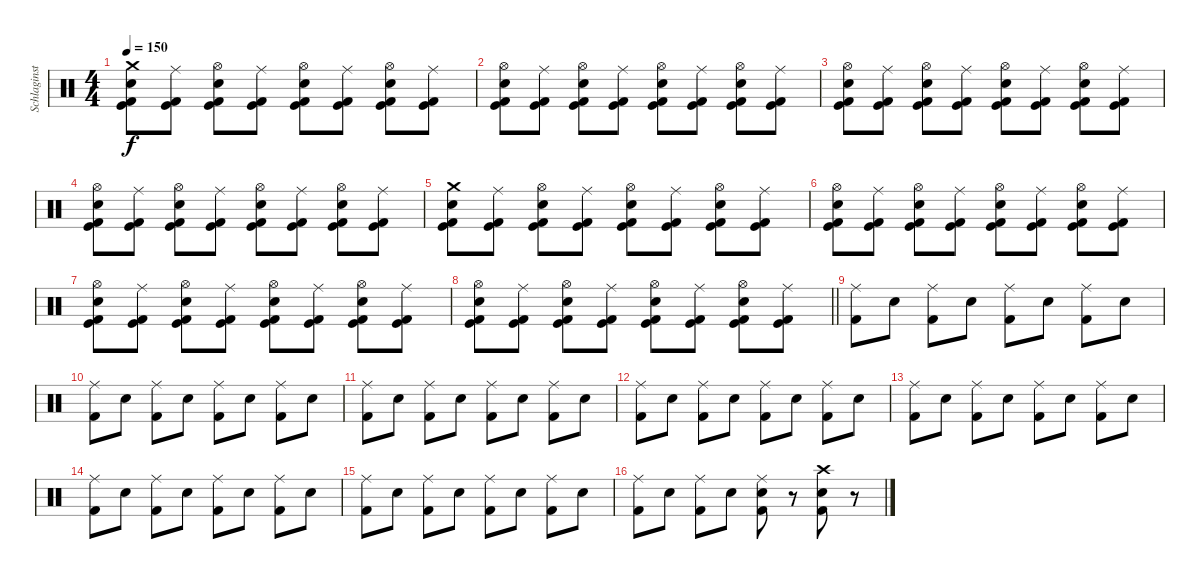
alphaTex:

\track ("Schlaginstrumente - Auswahl" "Schlaginst") {instrument percussion}
\staff {score}
\articulation defaults
\ts (4 4)
\tempo 150
\clef neutral
\ks c
("Crash medium (hit)" "Electric Snare (hit)" "Kick (hit)" "Kick (hit) 2").8{dy f} ("Ride (middle)" "Kick (hit)" "Kick (hit) 2").8 ("Hi-Hat (open)" "Electric Snare (hit)" "Kick (hit)" "Kick (hit) 2").8 ("Ride (middle)" "Kick (hit)" "Kick (hit) 2").8 ("Hi-Hat (open)" "Electric Snare (hit)" "Kick (hit)" "Kick (hit) 2").8 ("Ride (middle)" "Kick (hit)" "Kick (hit) 2").8 ("Hi-Hat (open)" "Electric Snare (hit)" "Kick (hit)" "Kick (hit) 2").8 ("Ride (middle)" "Kick (hit)" "Kick (hit) 2").8 |
("Hi-Hat (open)" "Electric Snare (hit)" "Kick (hit)" "Kick (hit) 2").8 ("Ride (middle)" "Kick (hit)" "Kick (hit) 2").8 ("Hi-Hat (open)" "Electric Snare (hit)" "Kick (hit)" "Kick (hit) 2").8 ("Ride (middle)" "Kick (hit)" "Kick (hit) 2").8 ("Hi-Hat (open)" "Electric Snare (hit)" "Kick (hit)" "Kick (hit) 2").8 ("Ride (middle)" "Kick (hit)" "Kick (hit) 2").8 ("Hi-Hat (open)" "Electric Snare (hit)" "Kick (hit)" "Kick (hit) 2").8 ("Ride (middle)" "Kick (hit)" "Kick (hit) 2").8 |
("Hi-Hat (open)" "Electric Snare (hit)" "Kick (hit)" "Kick (hit) 2").8 ("Ride (middle)" "Kick (hit)" "Kick (hit) 2").8 ("Hi-Hat (open)" "Electric Snare (hit)" "Kick (hit)" "Kick (hit) 2").8 ("Ride (middle)" "Kick (hit)" "Kick (hit) 2").8 ("Hi-Hat (open)" "Electric Snare (hit)" "Kick (hit)" "Kick (hit) 2").8 ("Ride (middle)" "Kick (hit)" "Kick (hit) 2").8 ("Hi-Hat (open)" "Electric Snare (hit)" "Kick (hit)" "Kick (hit) 2").8 ("Ride (middle)" "Kick (hit)" "Kick (hit) 2").8 |
("Hi-Hat (open)" "Electric Snare (hit)" "Kick (hit)" "Kick (hit) 2").8 ("Ride (middle)" "Kick (hit)" "Kick (hit) 2").8 ("Hi-Hat (open)" "Electric Snare (hit)" "Kick (hit)" "Kick (hit) 2").8 ("Ride (middle)" "Kick (hit)" "Kick (hit) 2").8 ("Hi-Hat (open)" "Electric Snare (hit)" "Kick (hit)" "Kick (hit) 2").8 ("Ride (middle)" "Kick (hit)" "Kick (hit) 2").8 ("Hi-Hat (open)" "Electric Snare (hit)" "Kick (hit)" "Kick (hit) 2").8 ("Ride (middle)" "Kick (hit)" "Kick (hit) 2").8 |
("Crash medium (hit)" "Electric Snare (hit)" "Kick (hit)" "Kick (hit) 2").8 ("Ride (middle)" "Kick (hit)" "Kick (hit) 2").8 ("Hi-Hat (open)" "Electric Snare (hit)" "Kick (hit)" "Kick (hit) 2").8 ("Ride (middle)" "Kick (hit)" "Kick (hit) 2").8 ("Hi-Hat (open)" "Electric Snare (hit)" "Kick (hit)" "Kick (hit) 2").8 ("Ride (middle)" "Kick (hit)" "Kick (hit) 2").8 ("Hi-Hat (open)" "Electric Snare (hit)" "Kick (hit)" "Kick (hit) 2").8 ("Ride (middle)" "Kick (hit)" "Kick (hit) 2").8 |
("Hi-Hat (open)" "Electric Snare (hit)" "Kick (hit)" "Kick (hit) 2").8 ("Ride (middle)" "Kick (hit)" "Kick (hit) 2").8 ("Hi-Hat (open)" "Electric Snare (hit)" "Kick (hit)" "Kick (hit) 2").8 ("Ride (middle)" "Kick (hit)" "Kick (hit) 2").8 ("Hi-Hat (open)" "Electric Snare (hit)" "Kick (hit)" "Kick (hit) 2").8 ("Ride (middle)" "Kick (hit)" "Kick (hit) 2").8 ("Hi-Hat (open)" "Electric Snare (hit)" "Kick (hit)" "Kick (hit) 2").8 ("Ride (middle)" "Kick (hit)" "Kick (hit) 2").8 |
("Hi-Hat (open)" "Electric Snare (hit)" "Kick (hit)" "Kick (hit) 2").8 ("Ride (middle)" "Kick (hit)" "Kick (hit) 2").8 ("Hi-Hat (open)" "Electric Snare (hit)" "Kick (hit)" "Kick (hit) 2").8 ("Ride (middle)" "Kick (hit)" "Kick (hit) 2").8 ("Hi-Hat (open)" "Electric Snare (hit)" "Kick (hit)" "Kick (hit) 2").8 ("Ride (middle)" "Kick (hit)" "Kick (hit) 2").8 ("Hi-Hat (open)" "Electric Snare (hit)" "Kick (hit)" "Kick (hit) 2").8 ("Ride (middle)" "Kick (hit)" "Kick (hit) 2").8 |
\barLineRight lightlight
("Hi-Hat (open)" "Electric Snare (hit)" "Kick (hit)" "Kick (hit) 2").8 ("Ride (middle)" "Kick (hit)" "Kick (hit) 2").8 ("Hi-Hat (open)" "Electric Snare (hit)" "Kick (hit)" "Kick (hit) 2").8 ("Ride (middle)" "Kick (hit)" "Kick (hit) 2").8 ("Hi-Hat (open)" "Electric Snare (hit)" "Kick (hit)" "Kick (hit) 2").8 ("Ride (middle)" "Kick (hit)" "Kick (hit) 2").8 ("Hi-Hat (open)" "Electric Snare (hit)" "Kick (hit)" "Kick (hit) 2").8 ("Ride (middle)" "Kick (hit)" "Kick (hit) 2").8 |
("Ride (middle)" "Kick (hit) 2").8 "Electric Snare (hit)".8 ("Ride (middle)" "Kick (hit) 2").8 "Electric Snare (hit)".8 ("Ride (middle)" "Kick (hit) 2").8 "Electric Snare (hit)".8 ("Ride (middle)" "Kick (hit) 2").8 "Electric Snare (hit)".8 |
("Ride (middle)" "Kick (hit) 2").8 "Electric Snare (hit)".8 ("Ride (middle)" "Kick (hit) 2").8 "Electric Snare (hit)".8 ("Ride (middle)" "Kick (hit) 2").8 "Electric Snare (hit)".8 ("Ride (middle)" "Kick (hit) 2").8 "Electric Snare (hit)".8 |
("Ride (middle)" "Kick (hit) 2").8 "Electric Snare (hit)".8 ("Ride (middle)" "Kick (hit) 2").8 "Electric Snare (hit)".8 ("Ride (middle)" "Kick (hit) 2").8 "Electric Snare (hit)".8 ("Ride (middle)" "Kick (hit) 2").8 "Electric Snare (hit)".8 |
("Ride (middle)" "Kick (hit) 2").8 "Electric Snare (hit)".8 ("Ride (middle)" "Kick (hit) 2").8 "Electric Snare (hit)".8 ("Ride (middle)" "Kick (hit) 2").8 "Electric Snare (hit)".8 ("Ride (middle)" "Kick (hit) 2").8 "Electric Snare (hit)".8 |
("Ride (middle)" "Kick (hit) 2").8 "Electric Snare (hit)".8 ("Ride (middle)" "Kick (hit) 2").8 "Electric Snare (hit)".8 ("Ride (middle)" "Kick (hit) 2").8 "Electric Snare (hit)".8 ("Ride (middle)" "Kick (hit) 2").8 "Electric Snare (hit)".8 |
("Ride (middle)" "Kick (hit) 2").8 "Electric Snare (hit)".8 ("Ride (middle)" "Kick (hit) 2").8 "Electric Snare (hit)".8 ("Ride (middle)" "Kick (hit) 2").8 "Electric Snare (hit)".8 ("Ride (middle)" "Kick (hit) 2").8 "Electric Snare (hit)".8 |
("Ride (middle)" "Kick (hit) 2").8 "Electric Snare (hit)".8 ("Ride (middle)" "Kick (hit) 2").8 "Electric Snare (hit)".8 ("Ride (middle)" "Kick (hit) 2").8 "Electric Snare (hit)".8 ("Ride (middle)" "Kick (hit) 2").8 "Electric Snare (hit)".8 |
("Ride (middle)" "Kick (hit) 2").8 "Electric Snare (hit)".8 ("Ride (middle)" "Kick (hit) 2").8 "Electric Snare (hit)".8 ("Ride (middle)" "Electric Snare (hit)" "Kick (hit) 2").8 r.8 ("Crash high (hit)" "Electric Snare (hit)" "Kick (hit) 2").8 r.8
